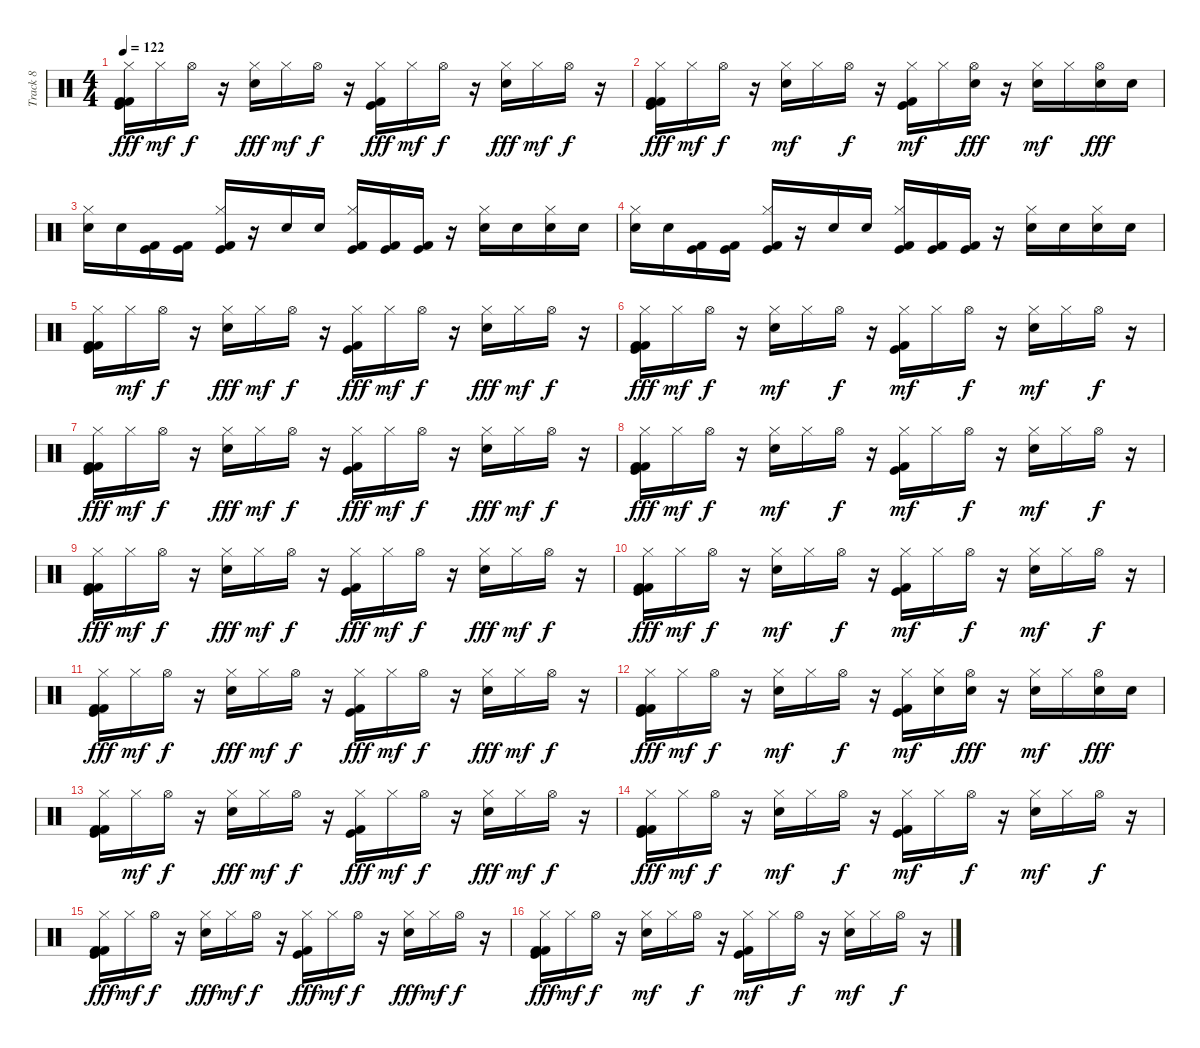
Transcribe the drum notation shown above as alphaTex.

\track ("Track 8" "Track 8") {instrument percussion}
\staff {score}
\articulation defaults
\ts (4 4)
\tempo 122
\clef neutral
\ks c
("Kick (hit) 2" "Hi-Hat (closed)" "Kick (hit) 2" "Kick (hit)").16{dy fff} "Hi-Hat (closed)".16{dy mf} "Hi-Hat (open)".16{dy f} r.16 ("Hi-Hat (closed)" "Electric Snare (hit)").16{dy fff} "Hi-Hat (closed)".16{dy mf} "Hi-Hat (open)".16{dy f} r.16 ("Hi-Hat (closed)" "Kick (hit)" "Kick (hit) 2").16{dy fff} "Hi-Hat (closed)".16{dy mf} "Hi-Hat (open)".16{dy f} r.16 ("Hi-Hat (closed)" "Electric Snare (hit)").16{dy fff} "Hi-Hat (closed)".16{dy mf} "Hi-Hat (open)".16{dy f} r.16 |
("Kick (hit) 2" "Hi-Hat (closed)" "Kick (hit) 2" "Kick (hit)").16{dy fff} "Hi-Hat (closed)".16{dy mf} "Hi-Hat (open)".16{dy f} r.16 ("Electric Snare (hit)" "Hi-Hat (closed)").16{dy mf} "Hi-Hat (closed)".16 "Hi-Hat (open)".16{dy f} r.16 ("Kick (hit) 2" "Kick (hit)" "Hi-Hat (closed)").16{dy mf} "Hi-Hat (closed)".16 ("Electric Snare (hit)" "Hi-Hat (open)").16{dy fff} r.16 ("Electric Snare (hit)" "Hi-Hat (closed)").16{dy mf} "Hi-Hat (closed)".16 ("Electric Snare (hit)" "Hi-Hat (open)").16{dy fff} "Electric Snare (hit)".16 |
("Hi-Hat (closed)" "Electric Snare (hit)").16 "Electric Snare (hit)".16 ("Kick (hit)" "Kick (hit) 2").16 ("Kick (hit) 2" "Kick (hit)").16 ("Hi-Hat (closed)" "Kick (hit) 2" "Kick (hit)").16 r.16 "Electric Snare (hit)".16 "Electric Snare (hit)".16 ("Hi-Hat (closed)" "Kick (hit)" "Kick (hit) 2").16 ("Kick (hit) 2" "Kick (hit)").16 ("Kick (hit) 2" "Kick (hit)").16 r.16 ("Hi-Hat (closed)" "Electric Snare (hit)").16 "Electric Snare (hit)".16 ("Hi-Hat (closed)" "Electric Snare (hit)").16 "Electric Snare (hit)".16 |
("Hi-Hat (closed)" "Electric Snare (hit)").16 "Electric Snare (hit)".16 ("Kick (hit) 2" "Kick (hit)").16 ("Kick (hit)" "Kick (hit) 2").16 ("Kick (hit)" "Kick (hit) 2" "Hi-Hat (closed)").16 r.16 "Electric Snare (hit)".16 "Electric Snare (hit)".16 ("Kick (hit) 2" "Kick (hit)" "Hi-Hat (closed)").16 ("Kick (hit)" "Kick (hit) 2").16 ("Kick (hit)" "Kick (hit) 2").16 r.16 ("Electric Snare (hit)" "Hi-Hat (closed)").16 "Electric Snare (hit)".16 ("Electric Snare (hit)" "Hi-Hat (closed)").16 "Electric Snare (hit)".16 |
("Kick (hit) 2" "Hi-Hat (closed)" "Kick (hit)" "Kick (hit) 2").16 "Hi-Hat (closed)".16{dy mf} "Hi-Hat (open)".16{dy f} r.16 ("Hi-Hat (closed)" "Electric Snare (hit)").16{dy fff} "Hi-Hat (closed)".16{dy mf} "Hi-Hat (open)".16{dy f} r.16 ("Hi-Hat (closed)" "Kick (hit)" "Kick (hit) 2").16{dy fff} "Hi-Hat (closed)".16{dy mf} "Hi-Hat (open)".16{dy f} r.16 ("Hi-Hat (closed)" "Electric Snare (hit)").16{dy fff} "Hi-Hat (closed)".16{dy mf} "Hi-Hat (open)".16{dy f} r.16 |
("Kick (hit) 2" "Hi-Hat (closed)" "Kick (hit) 2" "Kick (hit)").16{dy fff} "Hi-Hat (closed)".16{dy mf} "Hi-Hat (open)".16{dy f} r.16 ("Electric Snare (hit)" "Hi-Hat (closed)").16{dy mf} "Hi-Hat (closed)".16 "Hi-Hat (open)".16{dy f} r.16 ("Kick (hit) 2" "Kick (hit)" "Hi-Hat (closed)").16{dy mf} "Hi-Hat (closed)".16 "Hi-Hat (open)".16{dy f} r.16 ("Electric Snare (hit)" "Hi-Hat (closed)").16{dy mf} "Hi-Hat (closed)".16 "Hi-Hat (open)".16{dy f} r.16 |
("Kick (hit) 2" "Hi-Hat (closed)" "Kick (hit) 2" "Kick (hit)").16{dy fff} "Hi-Hat (closed)".16{dy mf} "Hi-Hat (open)".16{dy f} r.16 ("Hi-Hat (closed)" "Electric Snare (hit)").16{dy fff} "Hi-Hat (closed)".16{dy mf} "Hi-Hat (open)".16{dy f} r.16 ("Hi-Hat (closed)" "Kick (hit)" "Kick (hit) 2").16{dy fff} "Hi-Hat (closed)".16{dy mf} "Hi-Hat (open)".16{dy f} r.16 ("Hi-Hat (closed)" "Electric Snare (hit)").16{dy fff} "Hi-Hat (closed)".16{dy mf} "Hi-Hat (open)".16{dy f} r.16 |
("Kick (hit) 2" "Hi-Hat (closed)" "Kick (hit) 2" "Kick (hit)").16{dy fff} "Hi-Hat (closed)".16{dy mf} "Hi-Hat (open)".16{dy f} r.16 ("Electric Snare (hit)" "Hi-Hat (closed)").16{dy mf} "Hi-Hat (closed)".16 "Hi-Hat (open)".16{dy f} r.16 ("Kick (hit) 2" "Kick (hit)" "Hi-Hat (closed)").16{dy mf} "Hi-Hat (closed)".16 "Hi-Hat (open)".16{dy f} r.16 ("Electric Snare (hit)" "Hi-Hat (closed)").16{dy mf} "Hi-Hat (closed)".16 "Hi-Hat (open)".16{dy f} r.16 |
("Kick (hit) 2" "Hi-Hat (closed)" "Kick (hit) 2" "Kick (hit)").16{dy fff} "Hi-Hat (closed)".16{dy mf} "Hi-Hat (open)".16{dy f} r.16 ("Hi-Hat (closed)" "Electric Snare (hit)").16{dy fff} "Hi-Hat (closed)".16{dy mf} "Hi-Hat (open)".16{dy f} r.16 ("Hi-Hat (closed)" "Kick (hit)" "Kick (hit) 2").16{dy fff} "Hi-Hat (closed)".16{dy mf} "Hi-Hat (open)".16{dy f} r.16 ("Hi-Hat (closed)" "Electric Snare (hit)").16{dy fff} "Hi-Hat (closed)".16{dy mf} "Hi-Hat (open)".16{dy f} r.16 |
("Kick (hit) 2" "Hi-Hat (closed)" "Kick (hit) 2" "Kick (hit)").16{dy fff} "Hi-Hat (closed)".16{dy mf} "Hi-Hat (open)".16{dy f} r.16 ("Electric Snare (hit)" "Hi-Hat (closed)").16{dy mf} "Hi-Hat (closed)".16 "Hi-Hat (open)".16{dy f} r.16 ("Kick (hit) 2" "Kick (hit)" "Hi-Hat (closed)").16{dy mf} "Hi-Hat (closed)".16 "Hi-Hat (open)".16{dy f} r.16 ("Electric Snare (hit)" "Hi-Hat (closed)").16{dy mf} "Hi-Hat (closed)".16 "Hi-Hat (open)".16{dy f} r.16 |
("Kick (hit) 2" "Hi-Hat (closed)" "Kick (hit) 2" "Kick (hit)").16{dy fff} "Hi-Hat (closed)".16{dy mf} "Hi-Hat (open)".16{dy f} r.16 ("Hi-Hat (closed)" "Electric Snare (hit)").16{dy fff} "Hi-Hat (closed)".16{dy mf} "Hi-Hat (open)".16{dy f} r.16 ("Hi-Hat (closed)" "Kick (hit)" "Kick (hit) 2").16{dy fff} "Hi-Hat (closed)".16{dy mf} "Hi-Hat (open)".16{dy f} r.16 ("Hi-Hat (closed)" "Electric Snare (hit)").16{dy fff} "Hi-Hat (closed)".16{dy mf} "Hi-Hat (open)".16{dy f} r.16 |
("Kick (hit) 2" "Hi-Hat (closed)" "Kick (hit) 2" "Kick (hit)").16{dy fff} "Hi-Hat (closed)".16{dy mf} "Hi-Hat (open)".16{dy f} r.16 ("Electric Snare (hit)" "Hi-Hat (closed)").16{dy mf} "Hi-Hat (closed)".16 "Hi-Hat (open)".16{dy f} r.16 ("Kick (hit) 2" "Kick (hit)" "Hi-Hat (closed)").16{dy mf} ("Electric Snare (hit)" "Hi-Hat (closed)").16 ("Electric Snare (hit)" "Hi-Hat (open)").16{dy fff} r.16 ("Electric Snare (hit)" "Hi-Hat (closed)").16{dy mf} "Hi-Hat (closed)".16 ("Electric Snare (hit)" "Hi-Hat (open)").16{dy fff} "Electric Snare (hit)".16 |
("Kick (hit) 2" "Hi-Hat (closed)" "Kick (hit)" "Kick (hit) 2").16 "Hi-Hat (closed)".16{dy mf} "Hi-Hat (open)".16{dy f} r.16 ("Hi-Hat (closed)" "Electric Snare (hit)").16{dy fff} "Hi-Hat (closed)".16{dy mf} "Hi-Hat (open)".16{dy f} r.16 ("Hi-Hat (closed)" "Kick (hit)" "Kick (hit) 2").16{dy fff} "Hi-Hat (closed)".16{dy mf} "Hi-Hat (open)".16{dy f} r.16 ("Hi-Hat (closed)" "Electric Snare (hit)").16{dy fff} "Hi-Hat (closed)".16{dy mf} "Hi-Hat (open)".16{dy f} r.16 |
("Kick (hit) 2" "Hi-Hat (closed)" "Kick (hit) 2" "Kick (hit)").16{dy fff} "Hi-Hat (closed)".16{dy mf} "Hi-Hat (open)".16{dy f} r.16 ("Electric Snare (hit)" "Hi-Hat (closed)").16{dy mf} "Hi-Hat (closed)".16 "Hi-Hat (open)".16{dy f} r.16 ("Kick (hit) 2" "Kick (hit)" "Hi-Hat (closed)").16{dy mf} "Hi-Hat (closed)".16 "Hi-Hat (open)".16{dy f} r.16 ("Electric Snare (hit)" "Hi-Hat (closed)").16{dy mf} "Hi-Hat (closed)".16 "Hi-Hat (open)".16{dy f} r.16 |
("Kick (hit) 2" "Hi-Hat (closed)" "Kick (hit) 2" "Kick (hit)").16{dy fff} "Hi-Hat (closed)".16{dy mf} "Hi-Hat (open)".16{dy f} r.16 ("Hi-Hat (closed)" "Electric Snare (hit)").16{dy fff} "Hi-Hat (closed)".16{dy mf} "Hi-Hat (open)".16{dy f} r.16 ("Hi-Hat (closed)" "Kick (hit)" "Kick (hit) 2").16{dy fff} "Hi-Hat (closed)".16{dy mf} "Hi-Hat (open)".16{dy f} r.16 ("Hi-Hat (closed)" "Electric Snare (hit)").16{dy fff} "Hi-Hat (closed)".16{dy mf} "Hi-Hat (open)".16{dy f} r.16 |
("Kick (hit) 2" "Hi-Hat (closed)" "Kick (hit) 2" "Kick (hit)").16{dy fff} "Hi-Hat (closed)".16{dy mf} "Hi-Hat (open)".16{dy f} r.16 ("Electric Snare (hit)" "Hi-Hat (closed)").16{dy mf} "Hi-Hat (closed)".16 "Hi-Hat (open)".16{dy f} r.16 ("Kick (hit) 2" "Kick (hit)" "Hi-Hat (closed)").16{dy mf} "Hi-Hat (closed)".16 "Hi-Hat (open)".16{dy f} r.16 ("Electric Snare (hit)" "Hi-Hat (closed)").16{dy mf} "Hi-Hat (closed)".16 "Hi-Hat (open)".16{dy f} r.16
